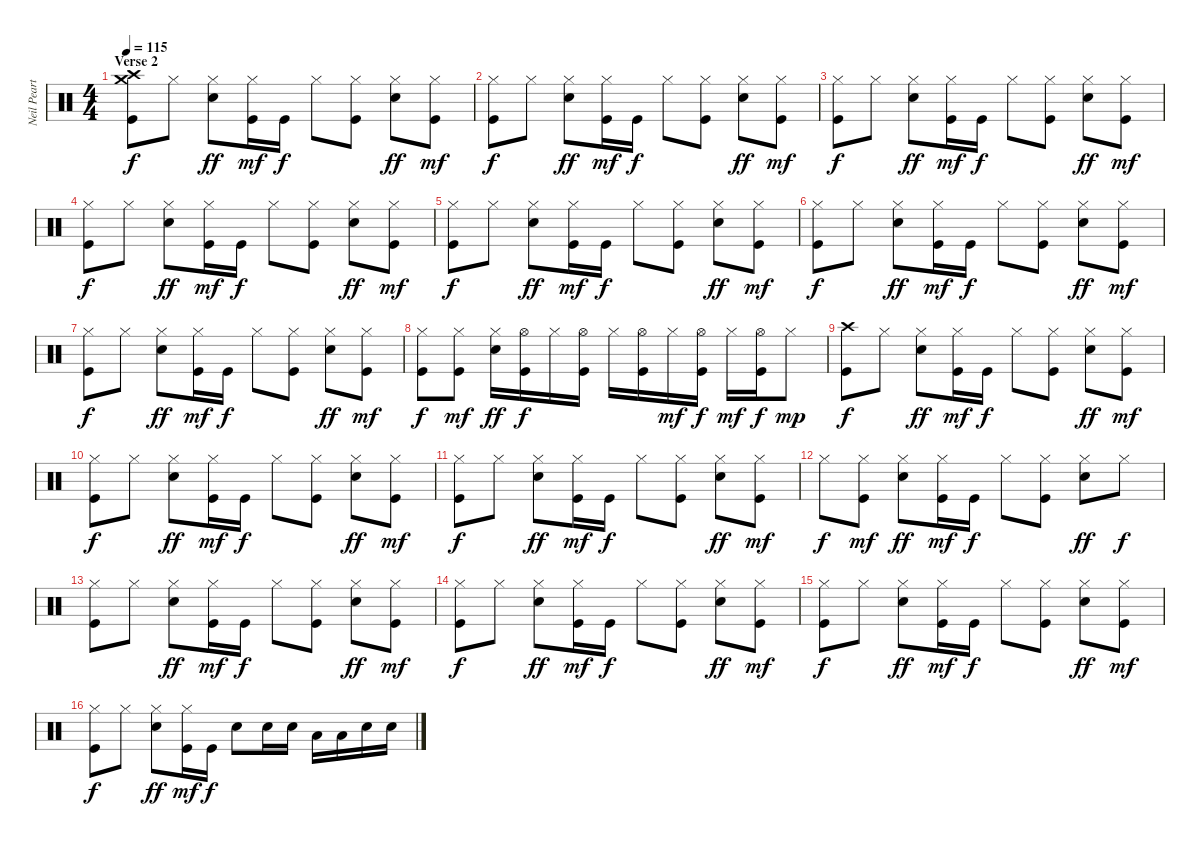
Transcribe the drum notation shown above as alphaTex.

\track ("Neil Peart - Drums" "Neil Peart") {instrument percussion}
\staff {score}
\articulation defaults
\ts (4 4)
\section ("" "Verse 2")
\tempo 115
\clef neutral
\ks c
("Crash high (hit)" "Crash medium (hit)" "Kick (hit)").8{dy f} "Hi-Hat (closed)".8 ("Hi-Hat (closed)" "Electric Snare (hit)").8{dy ff} ("Hi-Hat (closed)" "Kick (hit)").16{dy mf} "Kick (hit)".16{dy f} "Hi-Hat (closed)".8 ("Hi-Hat (closed)" "Kick (hit)").8 ("Hi-Hat (closed)" "Electric Snare (hit)").8{dy ff} ("Hi-Hat (closed)" "Kick (hit)").8{dy mf} |
("Hi-Hat (closed)" "Kick (hit)").8{dy f} "Hi-Hat (closed)".8 ("Hi-Hat (closed)" "Electric Snare (hit)").8{dy ff} ("Hi-Hat (closed)" "Kick (hit)").16{dy mf} "Kick (hit)".16{dy f} "Hi-Hat (closed)".8 ("Hi-Hat (closed)" "Kick (hit)").8 ("Hi-Hat (closed)" "Electric Snare (hit)").8{dy ff} ("Hi-Hat (closed)" "Kick (hit)").8{dy mf} |
("Hi-Hat (closed)" "Kick (hit)").8{dy f} "Hi-Hat (closed)".8 ("Hi-Hat (closed)" "Electric Snare (hit)").8{dy ff} ("Hi-Hat (closed)" "Kick (hit)").16{dy mf} "Kick (hit)".16{dy f} "Hi-Hat (closed)".8 ("Hi-Hat (closed)" "Kick (hit)").8 ("Hi-Hat (closed)" "Electric Snare (hit)").8{dy ff} ("Hi-Hat (closed)" "Kick (hit)").8{dy mf} |
("Hi-Hat (closed)" "Kick (hit)").8{dy f} "Hi-Hat (closed)".8 ("Hi-Hat (closed)" "Electric Snare (hit)").8{dy ff} ("Hi-Hat (closed)" "Kick (hit)").16{dy mf} "Kick (hit)".16{dy f} "Hi-Hat (closed)".8 ("Hi-Hat (closed)" "Kick (hit)").8 ("Hi-Hat (closed)" "Electric Snare (hit)").8{dy ff} ("Hi-Hat (closed)" "Kick (hit)").8{dy mf} |
("Hi-Hat (closed)" "Kick (hit)").8{dy f} "Hi-Hat (closed)".8 ("Hi-Hat (closed)" "Electric Snare (hit)").8{dy ff} ("Hi-Hat (closed)" "Kick (hit)").16{dy mf} "Kick (hit)".16{dy f} "Hi-Hat (closed)".8 ("Hi-Hat (closed)" "Kick (hit)").8 ("Hi-Hat (closed)" "Electric Snare (hit)").8{dy ff} ("Hi-Hat (closed)" "Kick (hit)").8{dy mf} |
("Hi-Hat (closed)" "Kick (hit)").8{dy f} "Hi-Hat (closed)".8 ("Hi-Hat (closed)" "Electric Snare (hit)").8{dy ff} ("Hi-Hat (closed)" "Kick (hit)").16{dy mf} "Kick (hit)".16{dy f} "Hi-Hat (closed)".8 ("Hi-Hat (closed)" "Kick (hit)").8 ("Hi-Hat (closed)" "Electric Snare (hit)").8{dy ff} ("Hi-Hat (closed)" "Kick (hit)").8{dy mf} |
("Hi-Hat (closed)" "Kick (hit)").8{dy f} "Hi-Hat (closed)".8 ("Hi-Hat (closed)" "Electric Snare (hit)").8{dy ff} ("Hi-Hat (closed)" "Kick (hit)").16{dy mf} "Kick (hit)".16{dy f} "Hi-Hat (closed)".8 ("Hi-Hat (closed)" "Kick (hit)").8 ("Hi-Hat (closed)" "Electric Snare (hit)").8{dy ff} ("Hi-Hat (closed)" "Kick (hit)").8{dy mf} |
("Hi-Hat (closed)" "Kick (hit)").8{dy f} ("Hi-Hat (closed)" "Kick (hit)").8{dy mf} ("Hi-Hat (closed)" "Electric Snare (hit)").16{dy ff} ("Hi-Hat (open)" "Kick (hit)").16{dy f} "Hi-Hat (closed)".16 ("Hi-Hat (open)" "Kick (hit)").16 "Hi-Hat (closed)".16 ("Hi-Hat (open)" "Kick (hit)").16 "Hi-Hat (closed)".16{dy mf} ("Hi-Hat (open)" "Kick (hit)").16{dy f} "Hi-Hat (closed)".16{dy mf} ("Hi-Hat (open)" "Kick (hit)").16{dy f} "Hi-Hat (closed)".8{dy mp} |
("Crash high (hit)" "Kick (hit)").8{dy f} "Hi-Hat (closed)".8 ("Hi-Hat (closed)" "Electric Snare (hit)").8{dy ff} ("Hi-Hat (closed)" "Kick (hit)").16{dy mf} "Kick (hit)".16{dy f} "Hi-Hat (closed)".8 ("Hi-Hat (closed)" "Kick (hit)").8 ("Hi-Hat (closed)" "Electric Snare (hit)").8{dy ff} ("Hi-Hat (closed)" "Kick (hit)").8{dy mf} |
("Hi-Hat (closed)" "Kick (hit)").8{dy f} "Hi-Hat (closed)".8 ("Hi-Hat (closed)" "Electric Snare (hit)").8{dy ff} ("Hi-Hat (closed)" "Kick (hit)").16{dy mf} "Kick (hit)".16{dy f} "Hi-Hat (closed)".8 ("Hi-Hat (closed)" "Kick (hit)").8 ("Hi-Hat (closed)" "Electric Snare (hit)").8{dy ff} ("Hi-Hat (closed)" "Kick (hit)").8{dy mf} |
("Hi-Hat (closed)" "Kick (hit)").8{dy f} "Hi-Hat (closed)".8 ("Hi-Hat (closed)" "Electric Snare (hit)").8{dy ff} ("Hi-Hat (closed)" "Kick (hit)").16{dy mf} "Kick (hit)".16{dy f} "Hi-Hat (closed)".8 ("Hi-Hat (closed)" "Kick (hit)").8 ("Hi-Hat (closed)" "Electric Snare (hit)").8{dy ff} ("Hi-Hat (closed)" "Kick (hit)").8{dy mf} |
"Hi-Hat (closed)".8{dy f} ("Hi-Hat (closed)" "Kick (hit)").8{dy mf} ("Hi-Hat (closed)" "Electric Snare (hit)").8{dy ff} ("Hi-Hat (closed)" "Kick (hit)").16{dy mf} "Kick (hit)".16{dy f} "Hi-Hat (closed)".8 ("Hi-Hat (closed)" "Kick (hit)").8 ("Hi-Hat (closed)" "Electric Snare (hit)").8{dy ff} "Hi-Hat (closed)".8{dy f} |
("Hi-Hat (closed)" "Kick (hit)").8 "Hi-Hat (closed)".8 ("Hi-Hat (closed)" "Electric Snare (hit)").8{dy ff} ("Hi-Hat (closed)" "Kick (hit)").16{dy mf} "Kick (hit)".16{dy f} "Hi-Hat (closed)".8 ("Hi-Hat (closed)" "Kick (hit)").8 ("Hi-Hat (closed)" "Electric Snare (hit)").8{dy ff} ("Hi-Hat (closed)" "Kick (hit)").8{dy mf} |
("Hi-Hat (closed)" "Kick (hit)").8{dy f} "Hi-Hat (closed)".8 ("Hi-Hat (closed)" "Electric Snare (hit)").8{dy ff} ("Hi-Hat (closed)" "Kick (hit)").16{dy mf} "Kick (hit)".16{dy f} "Hi-Hat (closed)".8 ("Hi-Hat (closed)" "Kick (hit)").8 ("Hi-Hat (closed)" "Electric Snare (hit)").8{dy ff} ("Hi-Hat (closed)" "Kick (hit)").8{dy mf} |
("Hi-Hat (closed)" "Kick (hit)").8{dy f} "Hi-Hat (closed)".8 ("Hi-Hat (closed)" "Electric Snare (hit)").8{dy ff} ("Hi-Hat (closed)" "Kick (hit)").16{dy mf} "Kick (hit)".16{dy f} "Hi-Hat (closed)".8 ("Hi-Hat (closed)" "Kick (hit)").8 ("Hi-Hat (closed)" "Electric Snare (hit)").8{dy ff} ("Hi-Hat (closed)" "Kick (hit)").8{dy mf} |
("Hi-Hat (closed)" "Kick (hit)").8{dy f} "Hi-Hat (closed)".8 ("Hi-Hat (closed)" "Electric Snare (hit)").8{dy ff} ("Hi-Hat (closed)" "Kick (hit)").16{dy mf} "Kick (hit)".16{dy f} "Electric Snare (hit)".8 "Electric Snare (hit)".16 "Electric Snare (hit)".16 "Low Tom (hit)".16 "Low Tom (hit)".16 "Electric Snare (hit)".16 "Electric Snare (hit)".16
